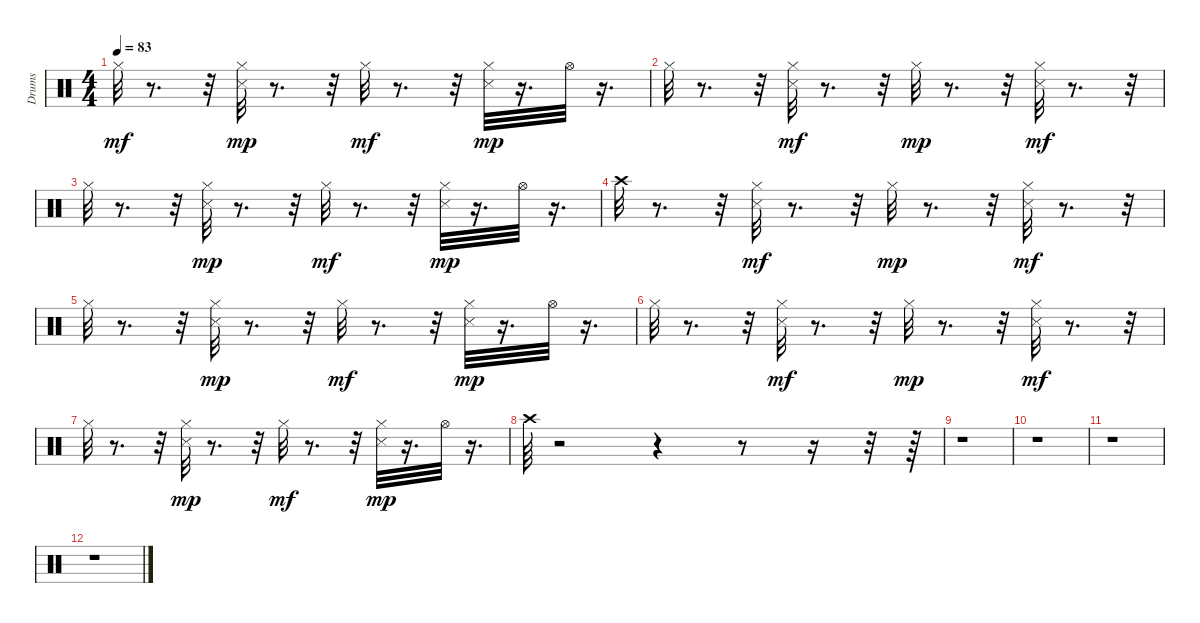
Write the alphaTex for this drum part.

\track ("Drums" "Drums") {instrument percussion}
\staff {score}
\articulation defaults
\ts (4 4)
\tempo 83
\clef neutral
\ks c "Hi-Hat (closed)".32{dy mf}
r.8{d} r.32 ("Hi-Hat (closed)" "Snare (side stick) 3").32{dy mp} r.8{d} r.32 "Hi-Hat (closed)".32{dy mf} r.8{d} r.32 ("Hi-Hat (closed)" "Snare (side stick) 3").32{dy mp} r.16{d} "Hi-Hat (open)".32 r.16{d} |
"Hi-Hat (closed)".32 r.8{d} r.32 ("Hi-Hat (closed)" "Snare (side stick) 3").32{dy mf} r.8{d} r.32 "Hi-Hat (closed)".32{dy mp} r.8{d} r.32 ("Hi-Hat (closed)" "Snare (side stick) 3").32{dy mf} r.8{d} r.32 |
"Hi-Hat (closed)".32 r.8{d} r.32 ("Hi-Hat (closed)" "Snare (side stick) 3").32{dy mp} r.8{d} r.32 "Hi-Hat (closed)".32{dy mf} r.8{d} r.32 ("Hi-Hat (closed)" "Snare (side stick) 3").32{dy mp} r.16{d} "Hi-Hat (open)".32 r.16{d} |
"Crash high (hit)".32 r.8{d} r.32 ("Hi-Hat (closed)" "Snare (side stick) 3").32{dy mf} r.8{d} r.32 "Hi-Hat (closed)".32{dy mp} r.8{d} r.32 ("Hi-Hat (closed)" "Snare (side stick) 3").32{dy mf} r.8{d} r.32 |
"Hi-Hat (closed)".32 r.8{d} r.32 ("Hi-Hat (closed)" "Snare (side stick) 3").32{dy mp} r.8{d} r.32 "Hi-Hat (closed)".32{dy mf} r.8{d} r.32 ("Hi-Hat (closed)" "Snare (side stick) 3").32{dy mp} r.16{d} "Hi-Hat (open)".32 r.16{d} |
"Hi-Hat (closed)".32 r.8{d} r.32 ("Hi-Hat (closed)" "Snare (side stick) 3").32{dy mf} r.8{d} r.32 "Hi-Hat (closed)".32{dy mp} r.8{d} r.32 ("Hi-Hat (closed)" "Snare (side stick) 3").32{dy mf} r.8{d} r.32 |
"Hi-Hat (closed)".32 r.8{d} r.32 ("Hi-Hat (closed)" "Snare (side stick) 3").32{dy mp} r.8{d} r.32 "Hi-Hat (closed)".32{dy mf} r.8{d} r.32 ("Hi-Hat (closed)" "Snare (side stick) 3").32{dy mp} r.16{d} "Hi-Hat (open)".32 r.16{d} |
"Crash high (hit)".64 r.2 r.4 r.8 r.16 r.32 r.64 |
r.1 |
r.1 |
r.1 |
r.1
